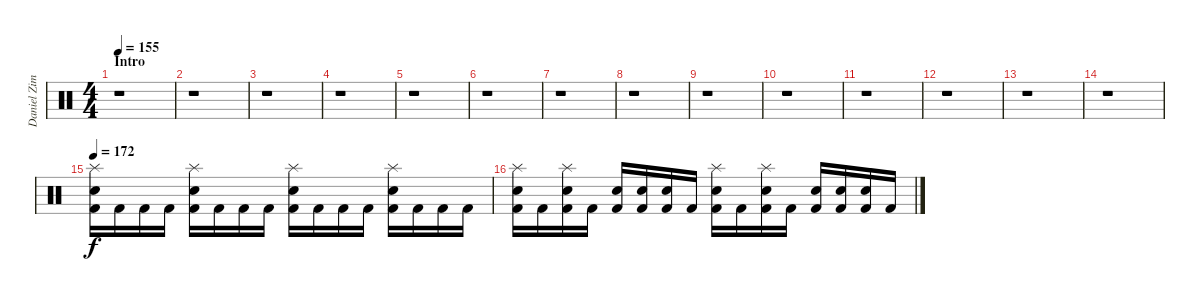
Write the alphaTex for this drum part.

\track ("Daniel Zimmermann - Drums" "Daniel Zim") {instrument percussion}
\staff {score}
\articulation defaults
\ts (4 4)
\section ("" "Intro")
\tempo 155
\clef neutral
\ks c
r.1{dy f} |
r.1 |
r.1 |
r.1 |
r.1 |
r.1 |
r.1 |
r.1 |
r.1 |
r.1 |
r.1 |
r.1 |
r.1 |
r.1 |
\tempo 172
("Kick (hit) 2" "Electric Snare (hit)" "Splash (hit)").16 "Kick (hit) 2".16 "Kick (hit) 2".16 "Kick (hit) 2".16 ("Kick (hit) 2" "Electric Snare (hit)" "Splash (hit)").16 "Kick (hit) 2".16 "Kick (hit) 2".16 "Kick (hit) 2".16 ("Kick (hit) 2" "Electric Snare (hit)" "Splash (hit)").16 "Kick (hit) 2".16 "Kick (hit) 2".16 "Kick (hit) 2".16 ("Kick (hit) 2" "Electric Snare (hit)" "Splash (hit)").16 "Kick (hit) 2".16 "Kick (hit) 2".16 "Kick (hit) 2".16 |
("Kick (hit) 2" "Electric Snare (hit)" "Splash (hit)").16 "Kick (hit) 2".16 ("Kick (hit) 2" "Electric Snare (hit)" "Splash (hit)").16 "Kick (hit) 2".16 ("Kick (hit) 2" "Electric Snare (hit)").16 ("Kick (hit) 2" "Electric Snare (hit)").16 ("Kick (hit) 2" "Electric Snare (hit)").16 "Kick (hit) 2".16 ("Kick (hit) 2" "Electric Snare (hit)" "Splash (hit)").16 "Kick (hit) 2".16 ("Kick (hit) 2" "Electric Snare (hit)" "Splash (hit)").16 "Kick (hit) 2".16 ("Kick (hit) 2" "Electric Snare (hit)").16 ("Kick (hit) 2" "Electric Snare (hit)").16 ("Kick (hit) 2" "Electric Snare (hit)").16 "Kick (hit) 2".16
